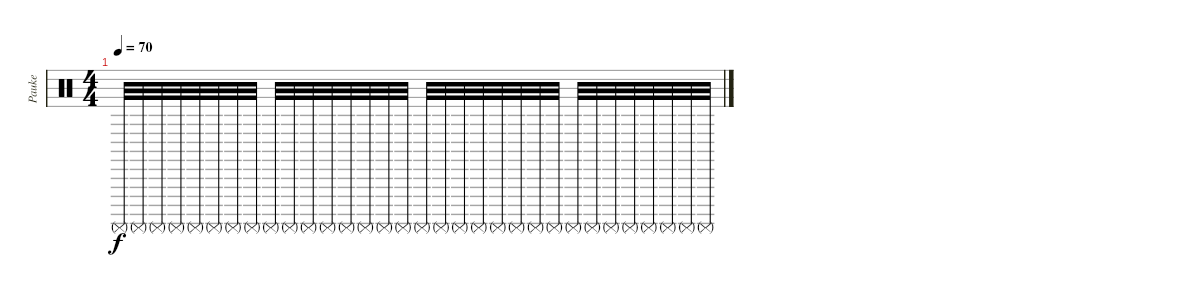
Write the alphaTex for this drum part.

\track ("Pauke" "Pauke") {instrument percussion}
\staff {score}
\articulation defaults
\ts (4 4)
\tempo 70
\clef neutral
\ks c "Surdo (mute)".32{dy f volume 8} "Surdo (mute)".32 "Surdo (mute)".32 "Surdo (mute)".32 "Surdo (mute)".32 "Surdo (mute)".32 "Surdo (mute)".32 "Surdo (mute)".32 "Surdo (mute)".32{volume 8} "Surdo (mute)".32 "Surdo (mute)".32 "Surdo (mute)".32 "Surdo (mute)".32 "Surdo (mute)".32 "Surdo (mute)".32 "Surdo (mute)".32 "Surdo (mute)".32{volume 8} "Surdo (mute)".32 "Surdo (mute)".32 "Surdo (mute)".32 "Surdo (mute)".32 "Surdo (mute)".32 "Surdo (mute)".32 "Surdo (mute)".32 "Surdo (mute)".32{volume 8} "Surdo (mute)".32 "Surdo (mute)".32 "Surdo (mute)".32 "Surdo (mute)".32 "Surdo (mute)".32 "Surdo (mute)".32 "Surdo (mute)".32
